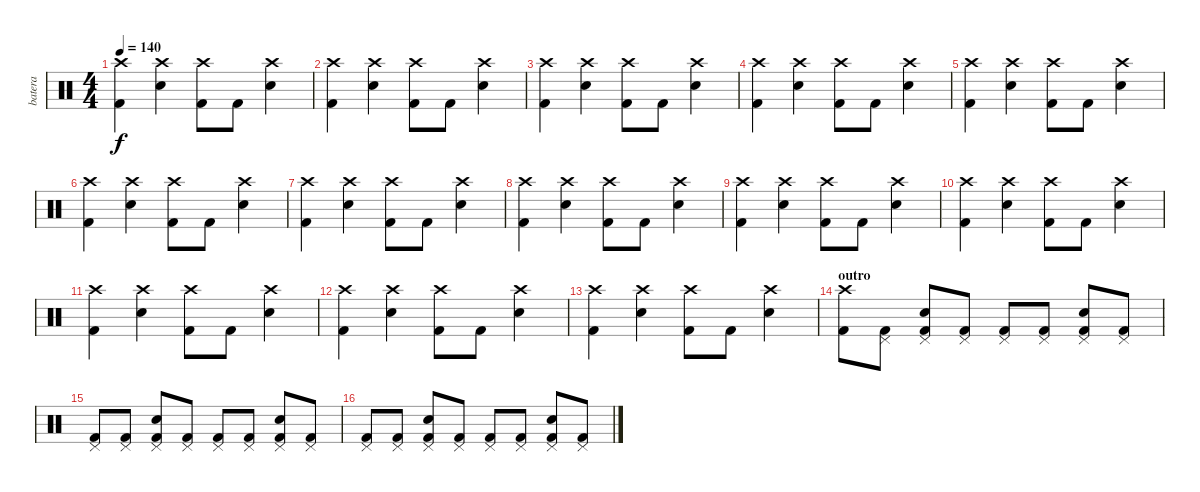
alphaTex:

\track ("batera" "batera") {instrument percussion}
\staff {score}
\articulation defaults
\ts (4 4)
\tempo 140
\clef neutral
\ks c
("Crash high (hit)" "Kick (hit) 2").4{dy f} ("Crash high (hit)" "Snare (hit) 2").4 ("Crash high (hit)" "Kick (hit) 2").8 "Kick (hit) 2".8 ("Crash high (hit)" "Snare (hit) 2").4 |
("Crash high (hit)" "Kick (hit) 2").4 ("Crash high (hit)" "Snare (hit) 2").4 ("Crash high (hit)" "Kick (hit) 2").8 "Kick (hit) 2".8 ("Crash high (hit)" "Snare (hit) 2").4 |
("Crash high (hit)" "Kick (hit) 2").4 ("Crash high (hit)" "Snare (hit) 2").4 ("Crash high (hit)" "Kick (hit) 2").8 "Kick (hit) 2".8 ("Crash high (hit)" "Snare (hit) 2").4 |
("Crash high (hit)" "Kick (hit) 2").4 ("Crash high (hit)" "Snare (hit) 2").4 ("Crash high (hit)" "Kick (hit) 2").8 "Kick (hit) 2".8 ("Crash high (hit)" "Snare (hit) 2").4 |
("Crash high (hit)" "Kick (hit) 2").4 ("Crash high (hit)" "Snare (hit) 2").4 ("Crash high (hit)" "Kick (hit) 2").8 "Kick (hit) 2".8 ("Crash high (hit)" "Snare (hit) 2").4 |
("Crash high (hit)" "Kick (hit) 2").4 ("Crash high (hit)" "Snare (hit) 2").4 ("Crash high (hit)" "Kick (hit) 2").8 "Kick (hit) 2".8 ("Crash high (hit)" "Snare (hit) 2").4 |
("Crash high (hit)" "Kick (hit) 2").4 ("Crash high (hit)" "Snare (hit) 2").4 ("Crash high (hit)" "Kick (hit) 2").8 "Kick (hit) 2".8 ("Crash high (hit)" "Snare (hit) 2").4 |
("Crash high (hit)" "Kick (hit) 2").4 ("Crash high (hit)" "Snare (hit) 2").4 ("Crash high (hit)" "Kick (hit) 2").8 "Kick (hit) 2".8 ("Crash high (hit)" "Snare (hit) 2").4 |
("Crash high (hit)" "Kick (hit) 2").4 ("Crash high (hit)" "Snare (hit) 2").4 ("Crash high (hit)" "Kick (hit) 2").8 "Kick (hit) 2".8 ("Crash high (hit)" "Snare (hit) 2").4 |
("Crash high (hit)" "Kick (hit) 2").4 ("Crash high (hit)" "Snare (hit) 2").4 ("Crash high (hit)" "Kick (hit) 2").8 "Kick (hit) 2".8 ("Crash high (hit)" "Snare (hit) 2").4 |
("Crash high (hit)" "Kick (hit) 2").4 ("Crash high (hit)" "Snare (hit) 2").4 ("Crash high (hit)" "Kick (hit) 2").8 "Kick (hit) 2".8 ("Crash high (hit)" "Snare (hit) 2").4 |
("Crash high (hit)" "Kick (hit) 2").4 ("Crash high (hit)" "Snare (hit) 2").4 ("Crash high (hit)" "Kick (hit) 2").8 "Kick (hit) 2".8 ("Crash high (hit)" "Snare (hit) 2").4 |
("Crash high (hit)" "Kick (hit) 2").4 ("Crash high (hit)" "Snare (hit) 2").4 ("Crash high (hit)" "Kick (hit) 2").8 "Kick (hit) 2".8 ("Crash high (hit)" "Snare (hit) 2").4 |
\section ("" "outro")
("Crash high (hit)" "Kick (hit) 2").8 ("Kick (hit) 2" "Pedal Hi-Hat (hit)").8 ("Snare (hit) 2" "Kick (hit) 2" "Pedal Hi-Hat (hit)").8 ("Kick (hit) 2" "Pedal Hi-Hat (hit)").8 ("Kick (hit) 2" "Pedal Hi-Hat (hit)").8 ("Kick (hit) 2" "Pedal Hi-Hat (hit)").8 ("Snare (hit) 2" "Kick (hit) 2" "Pedal Hi-Hat (hit)").8 ("Kick (hit) 2" "Pedal Hi-Hat (hit)").8 |
("Kick (hit) 2" "Pedal Hi-Hat (hit)").8 ("Kick (hit) 2" "Pedal Hi-Hat (hit)").8 ("Snare (hit) 2" "Kick (hit) 2" "Pedal Hi-Hat (hit)").8 ("Kick (hit) 2" "Pedal Hi-Hat (hit)").8 ("Kick (hit) 2" "Pedal Hi-Hat (hit)").8 ("Kick (hit) 2" "Pedal Hi-Hat (hit)").8 ("Snare (hit) 2" "Kick (hit) 2" "Pedal Hi-Hat (hit)").8 ("Kick (hit) 2" "Pedal Hi-Hat (hit)").8 |
("Kick (hit) 2" "Pedal Hi-Hat (hit)").8 ("Kick (hit) 2" "Pedal Hi-Hat (hit)").8 ("Snare (hit) 2" "Kick (hit) 2" "Pedal Hi-Hat (hit)").8 ("Kick (hit) 2" "Pedal Hi-Hat (hit)").8 ("Kick (hit) 2" "Pedal Hi-Hat (hit)").8 ("Kick (hit) 2" "Pedal Hi-Hat (hit)").8 ("Snare (hit) 2" "Kick (hit) 2" "Pedal Hi-Hat (hit)").8 ("Kick (hit) 2" "Pedal Hi-Hat (hit)").8
